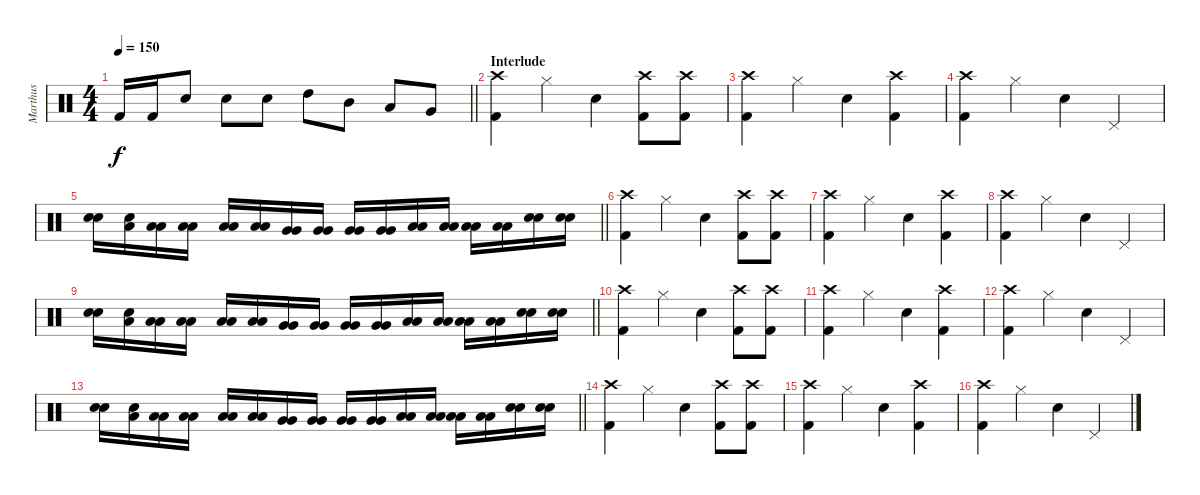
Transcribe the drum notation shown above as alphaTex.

\track ("Marthus" "Marthus") {instrument percussion}
\staff {score}
\articulation defaults
\ts (4 4)
\tempo 150
\clef neutral
\barLineRight lightlight
\ks c "Kick (hit) 2".16{dy f} "Kick (hit) 2".16 "Electric Snare (hit)".8 "Electric Snare (hit)".8 "Electric Snare (hit)".8 "High Tom (hit)".8 "Mid Tom (hit)".8 "Low Tom (hit)".8 "Very Low Tom (hit)".8
|
\section ("" "Interlude")
("Kick (hit) 2" "Crash high (hit)").4 "Hi-Hat (closed)".4 "Electric Snare (hit)".4 ("Kick (hit) 2" "Crash high (hit)").8 ("Kick (hit) 2" "Crash high (hit)").8 |
("Kick (hit) 2" "Crash high (hit)").4 "Hi-Hat (closed)".4 "Electric Snare (hit)".4 ("Kick (hit) 2" "Crash high (hit)").4 |
("Kick (hit) 2" "Crash high (hit)").4 "Hi-Hat (closed)".4 "Electric Snare (hit)".4 "Pedal Hi-Hat (hit)".4 |
\barLineRight lightlight
("Electric Snare (hit)" "Electric Snare (hit)").16 ("Electric Snare (hit)" "Low Floor Tom (hit)").16 ("Low Tom (hit)" "Low Tom (hit)").16 ("Low Tom (hit)" "Low Tom (hit)").16 ("Low Tom (hit)" "Low Tom (hit)").16 ("Low Tom (hit)" "Low Tom (hit)").16 ("Very Low Tom (hit)" "Very Low Tom (hit)").16 ("Very Low Tom (hit)" "Very Low Tom (hit)").16 ("Very Low Tom (hit)" "Very Low Tom (hit)").16 ("Very Low Tom (hit)" "Very Low Tom (hit)").16 ("Low Floor Tom (hit)" "Low Floor Tom (hit)").16 ("Low Floor Tom (hit)" "Low Floor Tom (hit)").16 ("Low Floor Tom (hit)" "Low Floor Tom (hit)").16 ("Low Floor Tom (hit)" "Low Floor Tom (hit)").16 ("Electric Snare (hit)" "Electric Snare (hit)").16 ("Electric Snare (hit)" "Electric Snare (hit)").16 |
("Kick (hit) 2" "Crash high (hit)").4 "Hi-Hat (closed)".4 "Electric Snare (hit)".4 ("Kick (hit) 2" "Crash high (hit)").8 ("Kick (hit) 2" "Crash high (hit)").8 |
("Kick (hit) 2" "Crash high (hit)").4 "Hi-Hat (closed)".4 "Electric Snare (hit)".4 ("Kick (hit) 2" "Crash high (hit)").4 |
("Kick (hit) 2" "Crash high (hit)").4 "Hi-Hat (closed)".4 "Electric Snare (hit)".4 "Pedal Hi-Hat (hit)".4 |
\barLineRight lightlight
("Electric Snare (hit)" "Electric Snare (hit)").16 ("Electric Snare (hit)" "Low Floor Tom (hit)").16 ("Low Tom (hit)" "Low Tom (hit)").16 ("Low Tom (hit)" "Low Tom (hit)").16 ("Low Tom (hit)" "Low Tom (hit)").16 ("Low Tom (hit)" "Low Tom (hit)").16 ("Very Low Tom (hit)" "Very Low Tom (hit)").16 ("Very Low Tom (hit)" "Very Low Tom (hit)").16 ("Very Low Tom (hit)" "Very Low Tom (hit)").16 ("Very Low Tom (hit)" "Very Low Tom (hit)").16 ("Low Floor Tom (hit)" "Low Floor Tom (hit)").16 ("Low Floor Tom (hit)" "Low Floor Tom (hit)").16 ("Low Floor Tom (hit)" "Low Floor Tom (hit)").16 ("Low Floor Tom (hit)" "Low Floor Tom (hit)").16 ("Electric Snare (hit)" "Electric Snare (hit)").16 ("Electric Snare (hit)" "Electric Snare (hit)").16 |
("Kick (hit) 2" "Crash high (hit)").4 "Hi-Hat (closed)".4 "Electric Snare (hit)".4 ("Kick (hit) 2" "Crash high (hit)").8 ("Kick (hit) 2" "Crash high (hit)").8 |
("Kick (hit) 2" "Crash high (hit)").4 "Hi-Hat (closed)".4 "Electric Snare (hit)".4 ("Kick (hit) 2" "Crash high (hit)").4 |
("Kick (hit) 2" "Crash high (hit)").4 "Hi-Hat (closed)".4 "Electric Snare (hit)".4 "Pedal Hi-Hat (hit)".4 |
\barLineRight lightlight
("Electric Snare (hit)" "Electric Snare (hit)").16 ("Electric Snare (hit)" "Low Floor Tom (hit)").16 ("Low Tom (hit)" "Low Tom (hit)").16 ("Low Tom (hit)" "Low Tom (hit)").16 ("Low Tom (hit)" "Low Tom (hit)").16 ("Low Tom (hit)" "Low Tom (hit)").16 ("Very Low Tom (hit)" "Very Low Tom (hit)").16 ("Very Low Tom (hit)" "Very Low Tom (hit)").16 ("Very Low Tom (hit)" "Very Low Tom (hit)").16 ("Very Low Tom (hit)" "Very Low Tom (hit)").16 ("Low Floor Tom (hit)" "Low Floor Tom (hit)").16 ("Low Floor Tom (hit)" "Low Floor Tom (hit)").16 ("Low Floor Tom (hit)" "Low Floor Tom (hit)").16 ("Low Floor Tom (hit)" "Low Floor Tom (hit)").16 ("Electric Snare (hit)" "Electric Snare (hit)").16 ("Electric Snare (hit)" "Electric Snare (hit)").16 |
("Kick (hit) 2" "Crash high (hit)").4 "Hi-Hat (closed)".4 "Electric Snare (hit)".4 ("Kick (hit) 2" "Crash high (hit)").8 ("Kick (hit) 2" "Crash high (hit)").8 |
("Kick (hit) 2" "Crash high (hit)").4 "Hi-Hat (closed)".4 "Electric Snare (hit)".4 ("Kick (hit) 2" "Crash high (hit)").4 |
("Kick (hit) 2" "Crash high (hit)").4 "Hi-Hat (closed)".4 "Electric Snare (hit)".4 "Pedal Hi-Hat (hit)".4
